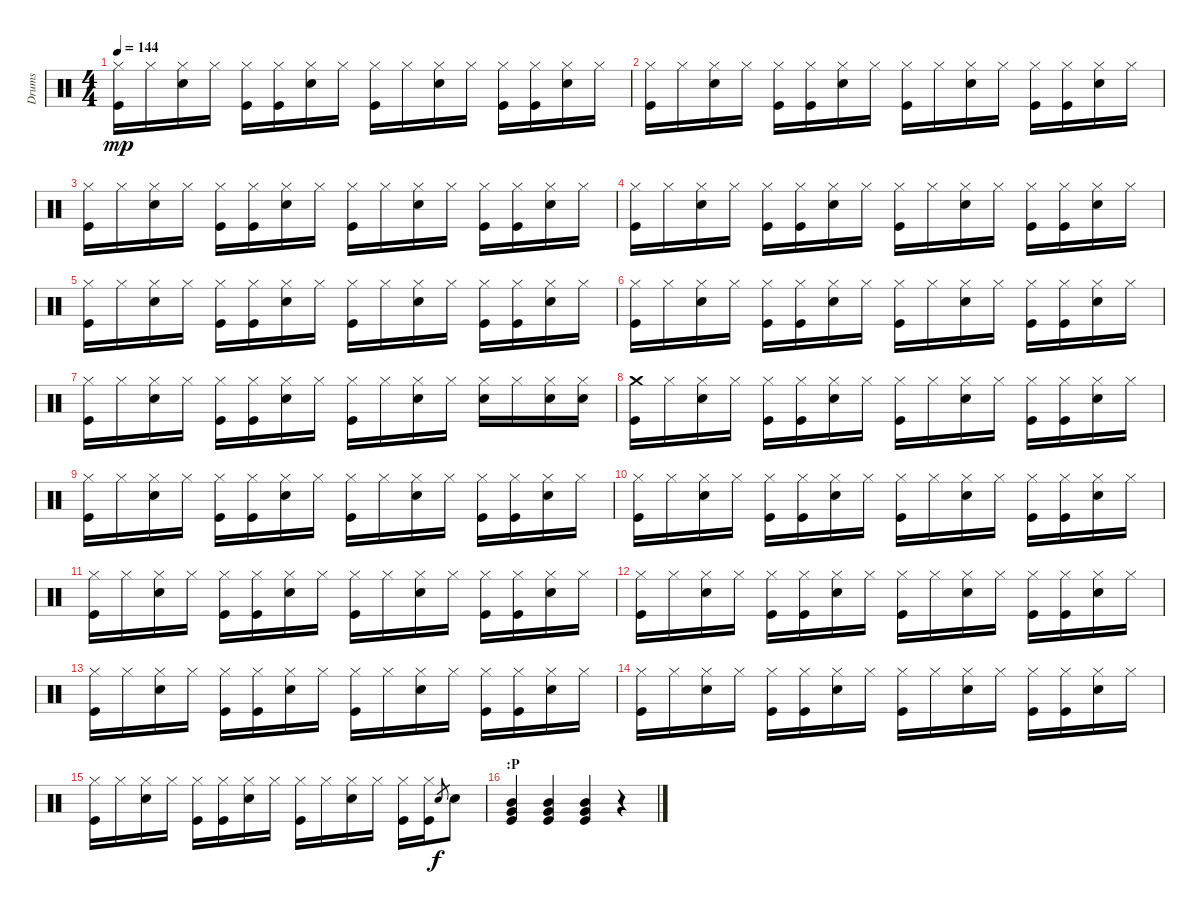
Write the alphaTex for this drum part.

\track ("Drums" "Drums") {instrument percussion}
\staff {score}
\articulation defaults
\ts (4 4)
\tempo 144
\clef neutral
\ks c
("Hi-Hat (closed)" "Kick (hit)").16{dy mp} "Hi-Hat (closed)".16 ("Hi-Hat (closed)" "Electric Snare (hit)").16 "Hi-Hat (closed)".16 ("Hi-Hat (closed)" "Kick (hit)").16 ("Hi-Hat (closed)" "Kick (hit)").16 ("Hi-Hat (closed)" "Electric Snare (hit)").16 "Hi-Hat (closed)".16 ("Hi-Hat (closed)" "Kick (hit)").16 "Hi-Hat (closed)".16 ("Hi-Hat (closed)" "Electric Snare (hit)").16 "Hi-Hat (closed)".16 ("Hi-Hat (closed)" "Kick (hit)").16 ("Hi-Hat (closed)" "Kick (hit)").16 ("Hi-Hat (closed)" "Electric Snare (hit)").16 "Hi-Hat (closed)".16 |
("Hi-Hat (closed)" "Kick (hit)").16 "Hi-Hat (closed)".16 ("Hi-Hat (closed)" "Electric Snare (hit)").16 "Hi-Hat (closed)".16 ("Hi-Hat (closed)" "Kick (hit)").16 ("Hi-Hat (closed)" "Kick (hit)").16 ("Hi-Hat (closed)" "Electric Snare (hit)").16 "Hi-Hat (closed)".16 ("Hi-Hat (closed)" "Kick (hit)").16 "Hi-Hat (closed)".16 ("Hi-Hat (closed)" "Electric Snare (hit)").16 "Hi-Hat (closed)".16 ("Hi-Hat (closed)" "Kick (hit)").16 ("Hi-Hat (closed)" "Kick (hit)").16 ("Hi-Hat (closed)" "Electric Snare (hit)").16 "Hi-Hat (closed)".16 |
("Hi-Hat (closed)" "Kick (hit)").16 "Hi-Hat (closed)".16 ("Hi-Hat (closed)" "Electric Snare (hit)").16 "Hi-Hat (closed)".16 ("Hi-Hat (closed)" "Kick (hit)").16 ("Hi-Hat (closed)" "Kick (hit)").16 ("Hi-Hat (closed)" "Electric Snare (hit)").16 "Hi-Hat (closed)".16 ("Hi-Hat (closed)" "Kick (hit)").16 "Hi-Hat (closed)".16 ("Hi-Hat (closed)" "Electric Snare (hit)").16 "Hi-Hat (closed)".16 ("Hi-Hat (closed)" "Kick (hit)").16 ("Hi-Hat (closed)" "Kick (hit)").16 ("Hi-Hat (closed)" "Electric Snare (hit)").16 "Hi-Hat (closed)".16 |
("Hi-Hat (closed)" "Kick (hit)").16 "Hi-Hat (closed)".16 ("Hi-Hat (closed)" "Electric Snare (hit)").16 "Hi-Hat (closed)".16 ("Hi-Hat (closed)" "Kick (hit)").16 ("Hi-Hat (closed)" "Kick (hit)").16 ("Hi-Hat (closed)" "Electric Snare (hit)").16 "Hi-Hat (closed)".16 ("Hi-Hat (closed)" "Kick (hit)").16 "Hi-Hat (closed)".16 ("Hi-Hat (closed)" "Electric Snare (hit)").16 "Hi-Hat (closed)".16 ("Hi-Hat (closed)" "Kick (hit)").16 ("Hi-Hat (closed)" "Kick (hit)").16 ("Hi-Hat (closed)" "Electric Snare (hit)").16 "Hi-Hat (closed)".16 |
("Hi-Hat (closed)" "Kick (hit)").16 "Hi-Hat (closed)".16 ("Hi-Hat (closed)" "Electric Snare (hit)").16 "Hi-Hat (closed)".16 ("Hi-Hat (closed)" "Kick (hit)").16 ("Hi-Hat (closed)" "Kick (hit)").16 ("Hi-Hat (closed)" "Electric Snare (hit)").16 "Hi-Hat (closed)".16 ("Hi-Hat (closed)" "Kick (hit)").16 "Hi-Hat (closed)".16 ("Hi-Hat (closed)" "Electric Snare (hit)").16 "Hi-Hat (closed)".16 ("Hi-Hat (closed)" "Kick (hit)").16 ("Hi-Hat (closed)" "Kick (hit)").16 ("Hi-Hat (closed)" "Electric Snare (hit)").16 "Hi-Hat (closed)".16 |
("Hi-Hat (closed)" "Kick (hit)").16 "Hi-Hat (closed)".16 ("Hi-Hat (closed)" "Electric Snare (hit)").16 "Hi-Hat (closed)".16 ("Hi-Hat (closed)" "Kick (hit)").16 ("Hi-Hat (closed)" "Kick (hit)").16 ("Hi-Hat (closed)" "Electric Snare (hit)").16 "Hi-Hat (closed)".16 ("Hi-Hat (closed)" "Kick (hit)").16 "Hi-Hat (closed)".16 ("Hi-Hat (closed)" "Electric Snare (hit)").16 "Hi-Hat (closed)".16 ("Hi-Hat (closed)" "Kick (hit)").16 ("Hi-Hat (closed)" "Kick (hit)").16 ("Hi-Hat (closed)" "Electric Snare (hit)").16 "Hi-Hat (closed)".16 |
("Hi-Hat (closed)" "Kick (hit)").16 "Hi-Hat (closed)".16 ("Hi-Hat (closed)" "Electric Snare (hit)").16 "Hi-Hat (closed)".16 ("Hi-Hat (closed)" "Kick (hit)").16 ("Hi-Hat (closed)" "Kick (hit)").16 ("Hi-Hat (closed)" "Electric Snare (hit)").16 "Hi-Hat (closed)".16 ("Hi-Hat (closed)" "Kick (hit)").16 "Hi-Hat (closed)".16 ("Hi-Hat (closed)" "Electric Snare (hit)").16 "Hi-Hat (closed)".16 ("Hi-Hat (closed)" "Electric Snare (hit)").16 "Hi-Hat (closed)".16 ("Hi-Hat (closed)" "Electric Snare (hit)").16 ("Hi-Hat (closed)" "Electric Snare (hit)").16 |
("Crash medium (hit)" "Kick (hit)").16 "Hi-Hat (closed)".16 ("Hi-Hat (closed)" "Electric Snare (hit)").16 "Hi-Hat (closed)".16 ("Hi-Hat (closed)" "Kick (hit)").16 ("Hi-Hat (closed)" "Kick (hit)").16 ("Hi-Hat (closed)" "Electric Snare (hit)").16 "Hi-Hat (closed)".16 ("Hi-Hat (closed)" "Kick (hit)").16 "Hi-Hat (closed)".16 ("Hi-Hat (closed)" "Electric Snare (hit)").16 "Hi-Hat (closed)".16 ("Hi-Hat (closed)" "Kick (hit)").16 ("Hi-Hat (closed)" "Kick (hit)").16 ("Hi-Hat (closed)" "Electric Snare (hit)").16 "Hi-Hat (closed)".16 |
("Hi-Hat (closed)" "Kick (hit)").16 "Hi-Hat (closed)".16 ("Hi-Hat (closed)" "Electric Snare (hit)").16 "Hi-Hat (closed)".16 ("Hi-Hat (closed)" "Kick (hit)").16 ("Hi-Hat (closed)" "Kick (hit)").16 ("Hi-Hat (closed)" "Electric Snare (hit)").16 "Hi-Hat (closed)".16 ("Hi-Hat (closed)" "Kick (hit)").16 "Hi-Hat (closed)".16 ("Hi-Hat (closed)" "Electric Snare (hit)").16 "Hi-Hat (closed)".16 ("Hi-Hat (closed)" "Kick (hit)").16 ("Hi-Hat (closed)" "Kick (hit)").16 ("Hi-Hat (closed)" "Electric Snare (hit)").16 "Hi-Hat (closed)".16 |
("Hi-Hat (closed)" "Kick (hit)").16 "Hi-Hat (closed)".16 ("Hi-Hat (closed)" "Electric Snare (hit)").16 "Hi-Hat (closed)".16 ("Hi-Hat (closed)" "Kick (hit)").16 ("Hi-Hat (closed)" "Kick (hit)").16 ("Hi-Hat (closed)" "Electric Snare (hit)").16 "Hi-Hat (closed)".16 ("Hi-Hat (closed)" "Kick (hit)").16 "Hi-Hat (closed)".16 ("Hi-Hat (closed)" "Electric Snare (hit)").16 "Hi-Hat (closed)".16 ("Hi-Hat (closed)" "Kick (hit)").16 ("Hi-Hat (closed)" "Kick (hit)").16 ("Hi-Hat (closed)" "Electric Snare (hit)").16 "Hi-Hat (closed)".16 |
("Hi-Hat (closed)" "Kick (hit)").16 "Hi-Hat (closed)".16 ("Hi-Hat (closed)" "Electric Snare (hit)").16 "Hi-Hat (closed)".16 ("Hi-Hat (closed)" "Kick (hit)").16 ("Hi-Hat (closed)" "Kick (hit)").16 ("Hi-Hat (closed)" "Electric Snare (hit)").16 "Hi-Hat (closed)".16 ("Hi-Hat (closed)" "Kick (hit)").16 "Hi-Hat (closed)".16 ("Hi-Hat (closed)" "Electric Snare (hit)").16 "Hi-Hat (closed)".16 ("Hi-Hat (closed)" "Kick (hit)").16 ("Hi-Hat (closed)" "Kick (hit)").16 ("Hi-Hat (closed)" "Electric Snare (hit)").16 "Hi-Hat (closed)".16 |
("Hi-Hat (closed)" "Kick (hit)").16 "Hi-Hat (closed)".16 ("Hi-Hat (closed)" "Electric Snare (hit)").16 "Hi-Hat (closed)".16 ("Hi-Hat (closed)" "Kick (hit)").16 ("Hi-Hat (closed)" "Kick (hit)").16 ("Hi-Hat (closed)" "Electric Snare (hit)").16 "Hi-Hat (closed)".16 ("Hi-Hat (closed)" "Kick (hit)").16 "Hi-Hat (closed)".16 ("Hi-Hat (closed)" "Electric Snare (hit)").16 "Hi-Hat (closed)".16 ("Hi-Hat (closed)" "Kick (hit)").16 ("Hi-Hat (closed)" "Kick (hit)").16 ("Hi-Hat (closed)" "Electric Snare (hit)").16 "Hi-Hat (closed)".16 |
("Hi-Hat (closed)" "Kick (hit)").16 "Hi-Hat (closed)".16 ("Hi-Hat (closed)" "Electric Snare (hit)").16 "Hi-Hat (closed)".16 ("Hi-Hat (closed)" "Kick (hit)").16 ("Hi-Hat (closed)" "Kick (hit)").16 ("Hi-Hat (closed)" "Electric Snare (hit)").16 "Hi-Hat (closed)".16 ("Hi-Hat (closed)" "Kick (hit)").16 "Hi-Hat (closed)".16 ("Hi-Hat (closed)" "Electric Snare (hit)").16 "Hi-Hat (closed)".16 ("Hi-Hat (closed)" "Kick (hit)").16 ("Hi-Hat (closed)" "Kick (hit)").16 ("Hi-Hat (closed)" "Electric Snare (hit)").16 "Hi-Hat (closed)".16 |
("Hi-Hat (closed)" "Kick (hit)").16 "Hi-Hat (closed)".16 ("Hi-Hat (closed)" "Electric Snare (hit)").16 "Hi-Hat (closed)".16 ("Hi-Hat (closed)" "Kick (hit)").16 ("Hi-Hat (closed)" "Kick (hit)").16 ("Hi-Hat (closed)" "Electric Snare (hit)").16 "Hi-Hat (closed)".16 ("Hi-Hat (closed)" "Kick (hit)").16 "Hi-Hat (closed)".16 ("Hi-Hat (closed)" "Electric Snare (hit)").16 "Hi-Hat (closed)".16 ("Hi-Hat (closed)" "Kick (hit)").16 ("Hi-Hat (closed)" "Kick (hit)").16 ("Hi-Hat (closed)" "Electric Snare (hit)").16 "Hi-Hat (closed)".16 |
("Hi-Hat (closed)" "Kick (hit)").16 "Hi-Hat (closed)".16 ("Hi-Hat (closed)" "Electric Snare (hit)").16 "Hi-Hat (closed)".16 ("Hi-Hat (closed)" "Kick (hit)").16 ("Hi-Hat (closed)" "Kick (hit)").16 ("Hi-Hat (closed)" "Electric Snare (hit)").16 "Hi-Hat (closed)".16 ("Hi-Hat (closed)" "Kick (hit)").16 "Hi-Hat (closed)".16 ("Hi-Hat (closed)" "Electric Snare (hit)").16 "Hi-Hat (closed)".16 ("Hi-Hat (closed)" "Kick (hit)").16 ("Hi-Hat (closed)" "Kick (hit)").16 "Electric Snare (hit)".8{gr dy f} "Electric Snare (hit)".8 |
\section ("" ":P")
("Mid Tom (hit)" "Very Low Tom (hit)" "Kick (hit)").4 ("Mid Tom (hit)" "Very Low Tom (hit)" "Kick (hit)").4 ("Mid Tom (hit)" "Very Low Tom (hit)" "Kick (hit)").4 r.4
